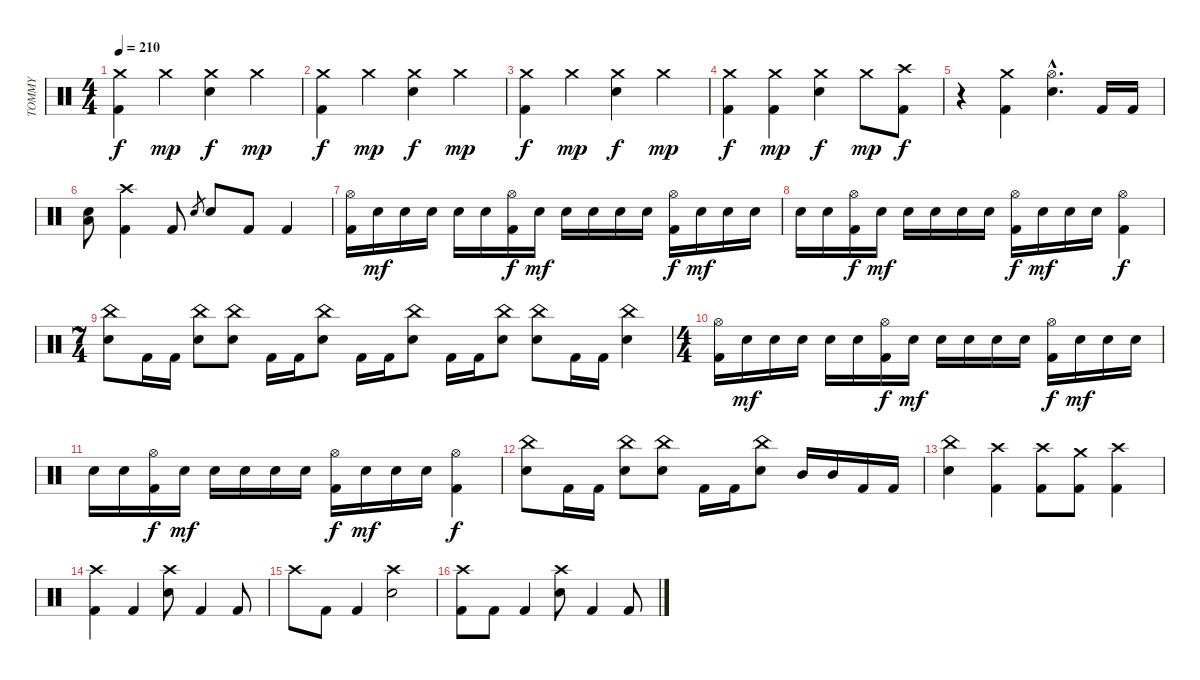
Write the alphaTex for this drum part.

\track ("TOMMY" "TOMMY") {instrument percussion}
\staff {score}
\articulation defaults
\ts (4 4)
\tempo 210
\clef neutral
\ks c
("Kick (hit) 2" "Crash medium (hit)").4{dy f} "Crash medium (hit)".4{dy mp} ("Snare (hit) 2" "Crash medium (hit)").4{dy f} "Crash medium (hit)".4{dy mp} |
("Kick (hit) 2" "Crash medium (hit)").4{dy f} "Crash medium (hit)".4{dy mp} ("Snare (hit) 2" "Crash medium (hit)").4{dy f} "Crash medium (hit)".4{dy mp} |
("Kick (hit) 2" "Crash medium (hit)").4{dy f} "Crash medium (hit)".4{dy mp} ("Snare (hit) 2" "Crash medium (hit)").4{dy f} "Crash medium (hit)".4{dy mp} |
("Kick (hit) 2" "Crash medium (hit)").4{dy f} ("Kick (hit) 2" "Crash medium (hit)").4{dy mp} ("Snare (hit) 2" "Crash medium (hit)").4{dy f} "Crash medium (hit)".8{dy mp} ("Kick (hit) 2" "Crash high (hit)").8{dy f} |
r.4 ("Kick (hit) 2" "Crash medium (hit)").4 ("Snare (hit) 2"{hac} "Hi-Hat (open)"{hac}).4{d} "Kick (hit) 2".16 "Kick (hit) 2".16 |
("Snare (hit) 2" "Low Floor Tom (hit)").8 ("Kick (hit) 2" "Crash high (hit)").4 "Kick (hit) 2".8 "Snare (hit) 2".8{gr} "Snare (hit) 2".8 "Kick (hit) 2".8 "Kick (hit) 2".4 |
("Kick (hit) 2" "Hi-Hat (open)").16 "Snare (hit) 2".16{dy mf} "Snare (hit) 2".16 "Snare (hit) 2".16 "Snare (hit) 2".16 "Snare (hit) 2".16 ("Kick (hit) 2" "Hi-Hat (open)").16{dy f} "Snare (hit) 2".16{dy mf} "Snare (hit) 2".16 "Snare (hit) 2".16 "Snare (hit) 2".16 "Snare (hit) 2".16 ("Kick (hit) 2" "Hi-Hat (open)").16{dy f} "Snare (hit) 2".16{dy mf} "Snare (hit) 2".16 "Snare (hit) 2".16 |
"Snare (hit) 2".16 "Snare (hit) 2".16 ("Kick (hit) 2" "Hi-Hat (open)").16{dy f} "Snare (hit) 2".16{dy mf} "Snare (hit) 2".16 "Snare (hit) 2".16 "Snare (hit) 2".16 "Snare (hit) 2".16 ("Kick (hit) 2" "Hi-Hat (open)").16{dy f} "Snare (hit) 2".16{dy mf} "Snare (hit) 2".16 "Snare (hit) 2".16 ("Kick (hit) 2" "Hi-Hat (open)").4{dy f} |
\ts (7 4)
("Snare (hit) 2" "China (hit)").8 "Kick (hit) 2".16 "Kick (hit) 2".16 ("Snare (hit) 2" "China (hit)").8 ("Snare (hit) 2" "China (hit)").8 "Kick (hit) 2".16 "Kick (hit) 2".16 ("Snare (hit) 2" "China (hit)").8 "Kick (hit) 2".16 "Kick (hit) 2".16 ("Snare (hit) 2" "China (hit)").8 "Kick (hit) 2".16 "Kick (hit) 2".16 ("Snare (hit) 2" "China (hit)").8 ("Snare (hit) 2" "China (hit)").8 "Kick (hit) 2".16 "Kick (hit) 2".16 ("Snare (hit) 2" "China (hit)").4 |
\ts (4 4)
("Kick (hit) 2" "Hi-Hat (open)").16 "Snare (hit) 2".16{dy mf} "Snare (hit) 2".16 "Snare (hit) 2".16 "Snare (hit) 2".16 "Snare (hit) 2".16 ("Kick (hit) 2" "Hi-Hat (open)").16{dy f} "Snare (hit) 2".16{dy mf} "Snare (hit) 2".16 "Snare (hit) 2".16 "Snare (hit) 2".16 "Snare (hit) 2".16 ("Kick (hit) 2" "Hi-Hat (open)").16{dy f} "Snare (hit) 2".16{dy mf} "Snare (hit) 2".16 "Snare (hit) 2".16 |
"Snare (hit) 2".16 "Snare (hit) 2".16 ("Kick (hit) 2" "Hi-Hat (open)").16{dy f} "Snare (hit) 2".16{dy mf} "Snare (hit) 2".16 "Snare (hit) 2".16 "Snare (hit) 2".16 "Snare (hit) 2".16 ("Kick (hit) 2" "Hi-Hat (open)").16{dy f} "Snare (hit) 2".16{dy mf} "Snare (hit) 2".16 "Snare (hit) 2".16 ("Kick (hit) 2" "Hi-Hat (open)").4{dy f} |
("Snare (hit) 2" "China (hit)").8 "Kick (hit) 2".16 "Kick (hit) 2".16 ("Snare (hit) 2" "China (hit)").8 ("Snare (hit) 2" "China (hit)").8 "Kick (hit) 2".16 "Kick (hit) 2".16 ("Snare (hit) 2" "China (hit)").8 "Mid Tom (hit)".16 "Mid Tom (hit)".16 "Kick (hit) 2".16 "Kick (hit) 2".16 |
("Snare (hit) 2" "China (hit)").4 ("Kick (hit) 2" "Crash high (hit)").4 ("Kick (hit) 2" "Crash high (hit)").8 ("Kick (hit) 2" "Crash medium (hit)").8 ("Kick (hit) 2" "Crash high (hit)").4 |
("Kick (hit) 2" "Crash high (hit)").4 "Kick (hit) 2".4 ("Snare (hit) 2" "Crash high (hit)").8 "Kick (hit) 2".4 "Kick (hit) 2".8 |
"Crash high (hit)".8 "Kick (hit) 2".8 "Kick (hit) 2".4 ("Snare (hit) 2" "Crash high (hit)").2 |
("Kick (hit) 2" "Crash high (hit)").8 "Kick (hit) 2".8 "Kick (hit) 2".4 ("Snare (hit) 2" "Crash high (hit)").8 "Kick (hit) 2".4 "Kick (hit) 2".8
